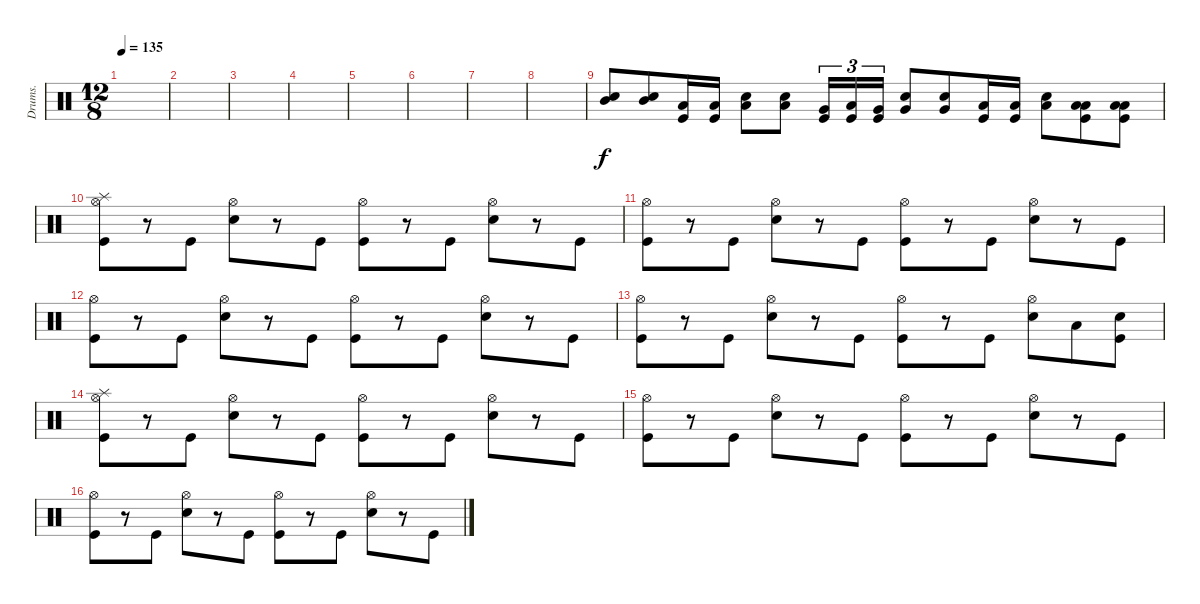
\track ("Drums." "Drums.") {instrument percussion}
\staff {score}
\articulation defaults
\ts (12 8)
\tempo 135
\clef neutral
\ks c
|
|
|
|
|
|
|
|
("Snare (hit) 2" "Mid Tom (hit)").8 ("Snare (hit) 2" "Mid Tom (hit)").8 ("Low Tom (hit)" "Kick (hit)").16 ("Low Tom (hit)" "Kick (hit)").16 ("Snare (hit) 2" "Low Tom (hit)").8 ("Snare (hit) 2" "Low Tom (hit)").8 ("Very Low Tom (hit)" "Kick (hit)").16{tu (3 2)} ("Low Tom (hit)" "Kick (hit)").16{tu (3 2)} ("Very Low Tom (hit)" "Kick (hit)").16{tu (3 2)} ("Snare (hit) 2" "Very Low Tom (hit)").8 ("Snare (hit) 2" "Very Low Tom (hit)").8 ("Low Floor Tom (hit)" "Kick (hit)").16 ("Low Floor Tom (hit)" "Kick (hit)").16 ("Snare (hit) 2" "Low Floor Tom (hit)").8 ("Low Tom (hit)" "Low Floor Tom (hit)" "Kick (hit)").8 ("Low Tom (hit)" "Low Floor Tom (hit)" "Kick (hit)").8 |
("Hi-Hat (open)" "Splash (hit)" "Kick (hit)").8 r.8 "Kick (hit)".8 ("Hi-Hat (open)" "Snare (hit) 2").8 r.8 "Kick (hit)".8 ("Hi-Hat (open)" "Kick (hit)").8 r.8 "Kick (hit)".8 ("Hi-Hat (open)" "Snare (hit) 2").8 r.8 "Kick (hit)".8 |
("Hi-Hat (open)" "Kick (hit)").8 r.8 "Kick (hit)".8 ("Hi-Hat (open)" "Snare (hit) 2").8 r.8 "Kick (hit)".8 ("Hi-Hat (open)" "Kick (hit)").8 r.8 "Kick (hit)".8 ("Hi-Hat (open)" "Snare (hit) 2").8 r.8 "Kick (hit)".8 |
("Hi-Hat (open)" "Kick (hit)").8 r.8 "Kick (hit)".8 ("Hi-Hat (open)" "Snare (hit) 2").8 r.8 "Kick (hit)".8 ("Hi-Hat (open)" "Kick (hit)").8 r.8 "Kick (hit)".8 ("Hi-Hat (open)" "Snare (hit) 2").8 r.8 "Kick (hit)".8 |
("Hi-Hat (open)" "Kick (hit)").8 r.8 "Kick (hit)".8 ("Hi-Hat (open)" "Snare (hit) 2").8 r.8 "Kick (hit)".8 ("Hi-Hat (open)" "Kick (hit)").8 r.8 "Kick (hit)".8 ("Hi-Hat (open)" "Snare (hit) 2").8 "Low Tom (hit)".8 ("Snare (hit) 2" "Kick (hit)").8 |
("Hi-Hat (open)" "Splash (hit)" "Kick (hit)").8 r.8 "Kick (hit)".8 ("Hi-Hat (open)" "Snare (hit) 2").8 r.8 "Kick (hit)".8 ("Hi-Hat (open)" "Kick (hit)").8 r.8 "Kick (hit)".8 ("Hi-Hat (open)" "Snare (hit) 2").8 r.8 "Kick (hit)".8 |
("Hi-Hat (open)" "Kick (hit)").8 r.8 "Kick (hit)".8 ("Hi-Hat (open)" "Snare (hit) 2").8 r.8 "Kick (hit)".8 ("Hi-Hat (open)" "Kick (hit)").8 r.8 "Kick (hit)".8 ("Hi-Hat (open)" "Snare (hit) 2").8 r.8 "Kick (hit)".8 |
("Hi-Hat (open)" "Kick (hit)").8 r.8 "Kick (hit)".8 ("Hi-Hat (open)" "Snare (hit) 2").8 r.8 "Kick (hit)".8 ("Hi-Hat (open)" "Kick (hit)").8 r.8 "Kick (hit)".8 ("Hi-Hat (open)" "Snare (hit) 2").8 r.8 "Kick (hit)".8
